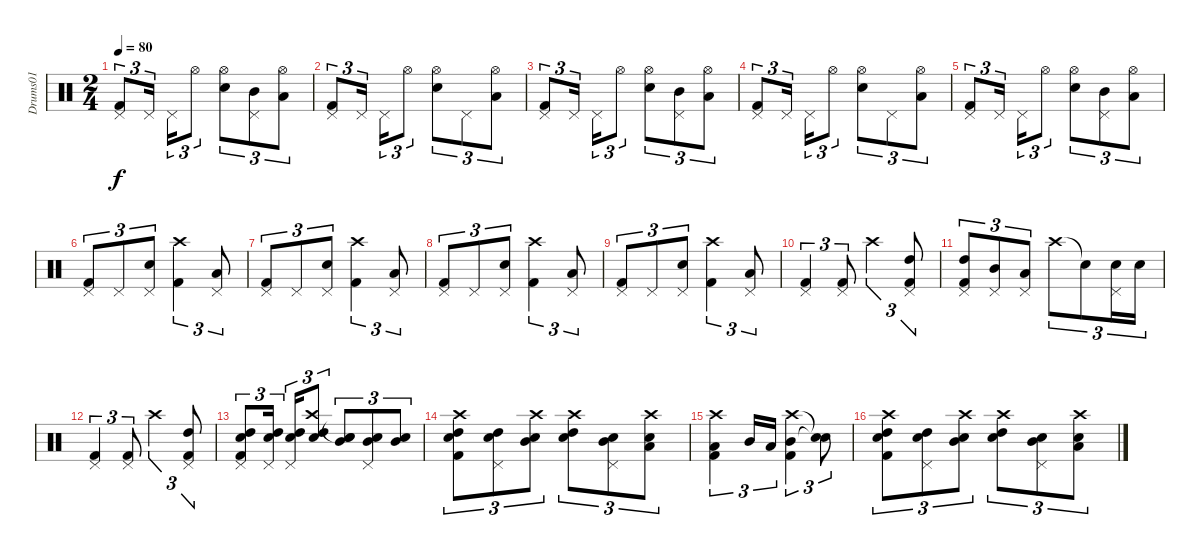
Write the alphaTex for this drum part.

\track ("Drums01" "Drums01") {instrument percussion}
\staff {score}
\articulation defaults
\ts (2 4)
\tempo 80
\clef neutral
\ks c
("Pedal Hi-Hat (hit)" "Kick (hit) 2").8{tu (3 2) dy f} "Pedal Hi-Hat (hit)".16{tu (3 2) beam splitsecondary} "Pedal Hi-Hat (hit)".16{tu (3 2)} "Hi-Hat (open)".8{tu (3 2)} ("Hi-Hat (open)" "Snare (hit) 2").8{tu (3 2)} ("Pedal Hi-Hat (hit)" "Mid Tom (hit)").8{tu (3 2)} ("Hi-Hat (open)" "Low Tom (hit)").8{tu (3 2)} |
("Pedal Hi-Hat (hit)" "Kick (hit) 2").8{tu (3 2)} "Pedal Hi-Hat (hit)".16{tu (3 2) beam splitsecondary} "Pedal Hi-Hat (hit)".16{tu (3 2)} "Hi-Hat (open)".8{tu (3 2)} ("Hi-Hat (open)" "Snare (hit) 2").8{tu (3 2)} "Pedal Hi-Hat (hit)".8{tu (3 2)} ("Hi-Hat (open)" "Low Tom (hit)").8{tu (3 2)} |
("Pedal Hi-Hat (hit)" "Kick (hit) 2").8{tu (3 2)} "Pedal Hi-Hat (hit)".16{tu (3 2) beam splitsecondary} "Pedal Hi-Hat (hit)".16{tu (3 2)} "Hi-Hat (open)".8{tu (3 2)} ("Hi-Hat (open)" "Snare (hit) 2").8{tu (3 2)} ("Pedal Hi-Hat (hit)" "Mid Tom (hit)").8{tu (3 2)} ("Hi-Hat (open)" "Low Tom (hit)").8{tu (3 2)} |
("Pedal Hi-Hat (hit)" "Kick (hit) 2").8{tu (3 2)} "Pedal Hi-Hat (hit)".16{tu (3 2) beam splitsecondary} "Pedal Hi-Hat (hit)".16{tu (3 2)} "Hi-Hat (open)".8{tu (3 2)} ("Hi-Hat (open)" "Snare (hit) 2").8{tu (3 2)} "Pedal Hi-Hat (hit)".8{tu (3 2)} ("Hi-Hat (open)" "Low Tom (hit)").8{tu (3 2)} |
("Pedal Hi-Hat (hit)" "Kick (hit) 2").8{tu (3 2)} "Pedal Hi-Hat (hit)".16{tu (3 2) beam splitsecondary} "Pedal Hi-Hat (hit)".16{tu (3 2)} "Hi-Hat (open)".8{tu (3 2)} ("Hi-Hat (open)" "Snare (hit) 2").8{tu (3 2)} ("Pedal Hi-Hat (hit)" "Mid Tom (hit)").8{tu (3 2)} ("Hi-Hat (open)" "Low Tom (hit)").8{tu (3 2)} |
("Pedal Hi-Hat (hit)" "Kick (hit) 2").8{tu (3 2)} "Pedal Hi-Hat (hit)".8{tu (3 2)} ("Pedal Hi-Hat (hit)" "Snare (hit) 2").8{tu (3 2)} ("Crash high (hit)" "Kick (hit) 2").4{tu (3 2)} ("Pedal Hi-Hat (hit)" "Low Tom (hit)").8{tu (3 2)} |
("Pedal Hi-Hat (hit)" "Kick (hit) 2").8{tu (3 2)} "Pedal Hi-Hat (hit)".8{tu (3 2)} ("Pedal Hi-Hat (hit)" "Snare (hit) 2").8{tu (3 2)} ("Crash high (hit)" "Kick (hit) 2").4{tu (3 2)} ("Pedal Hi-Hat (hit)" "Low Tom (hit)").8{tu (3 2)} |
("Pedal Hi-Hat (hit)" "Kick (hit) 2").8{tu (3 2)} "Pedal Hi-Hat (hit)".8{tu (3 2)} ("Pedal Hi-Hat (hit)" "Snare (hit) 2").8{tu (3 2)} ("Crash high (hit)" "Kick (hit) 2").4{tu (3 2)} ("Pedal Hi-Hat (hit)" "Low Tom (hit)").8{tu (3 2)} |
("Pedal Hi-Hat (hit)" "Kick (hit) 2").8{tu (3 2)} "Pedal Hi-Hat (hit)".8{tu (3 2)} ("Pedal Hi-Hat (hit)" "Snare (hit) 2").8{tu (3 2)} ("Crash high (hit)" "Kick (hit) 2").4{tu (3 2)} ("Pedal Hi-Hat (hit)" "Low Tom (hit)").8{tu (3 2)} |
("Pedal Hi-Hat (hit)" "Kick (hit) 2").4{tu (3 2)} ("Pedal Hi-Hat (hit)" "Kick (hit) 2").8{tu (3 2)} "Crash high (hit)".4{tu (3 2)} ("Pedal Hi-Hat (hit)" "High Tom (hit)" "Kick (hit) 2").8{tu (3 2)} |
("Pedal Hi-Hat (hit)" "High Tom (hit)" "Kick (hit) 2").8{tu (3 2)} ("Pedal Hi-Hat (hit)" "Mid Tom (hit)").8{tu (3 2)} ("Pedal Hi-Hat (hit)" "Low Tom (hit)").8{tu (3 2)} "Crash high (hit)".8{tu (3 2)} "Snare (hit)"{t}.8{tu (3 2)} ("Pedal Hi-Hat (hit)" "Snare (hit) 2").16{tu (3 2)} "Snare (hit) 2".16{tu (3 2)} |
("Pedal Hi-Hat (hit)" "Kick (hit) 2").4{tu (3 2)} ("Pedal Hi-Hat (hit)" "Kick (hit) 2").8{tu (3 2)} "Crash high (hit)".4{tu (3 2)} ("Pedal Hi-Hat (hit)" "High Tom (hit)" "Kick (hit) 2").8{tu (3 2)} |
("Pedal Hi-Hat (hit)" "Snare (hit) 2" "High Tom (hit)" "Kick (hit) 2").8{tu (3 2)} ("Pedal Hi-Hat (hit)" "Snare (hit) 2" "High Tom (hit)").16{tu (3 2) beam splitsecondary} ("Pedal Hi-Hat (hit)" "Snare (hit) 2" "High Tom (hit)").16{tu (3 2)} ("Crash high (hit)" "Snare (hit) 2" "High Tom (hit)").8{tu (3 2)} ("Snare (hit)"{t} "Snare (hit) 2" "Mid Tom (hit)").8{tu (3 2)} ("Pedal Hi-Hat (hit)" "Snare (hit) 2" "Mid Tom (hit)").8{tu (3 2)} ("Snare (hit) 2" "Mid Tom (hit)").8{tu (3 2)} |
("Crash high (hit)" "Snare (hit) 2" "High Tom (hit)" "Kick (hit) 2").8{tu (3 2)} ("Pedal Hi-Hat (hit)" "Snare (hit) 2" "High Tom (hit)").8{tu (3 2)} ("Crash high (hit)" "Snare (hit) 2" "Mid Tom (hit)").8{tu (3 2)} ("Crash high (hit)" "Snare (hit) 2" "High Tom (hit)").8{tu (3 2)} ("Pedal Hi-Hat (hit)" "Snare (hit) 2" "Mid Tom (hit)").8{tu (3 2)} ("Crash high (hit)" "Snare (hit) 2" "Low Tom (hit)").8{tu (3 2)} |
("Crash high (hit)" "Low Tom (hit)" "Kick (hit) 2").4{tu (3 2)} "Mid Tom (hit)".16{tu (3 2)} "Low Tom (hit)".16{tu (3 2)} ("Crash high (hit)" "Mid Tom (hit)" "Kick (hit) 2").4{tu (3 2)} ("Snare (hit)"{t} "Snare (hit)"{t}).8{tu (3 2)} |
("Crash high (hit)" "Snare (hit) 2" "High Tom (hit)" "Kick (hit) 2").8{tu (3 2)} ("Pedal Hi-Hat (hit)" "Snare (hit) 2" "High Tom (hit)").8{tu (3 2)} ("Crash high (hit)" "Snare (hit) 2" "Mid Tom (hit)").8{tu (3 2)} ("Crash high (hit)" "Snare (hit) 2" "High Tom (hit)").8{tu (3 2)} ("Pedal Hi-Hat (hit)" "Snare (hit) 2" "Mid Tom (hit)").8{tu (3 2)} ("Crash high (hit)" "Snare (hit) 2" "Low Tom (hit)").8{tu (3 2)}
